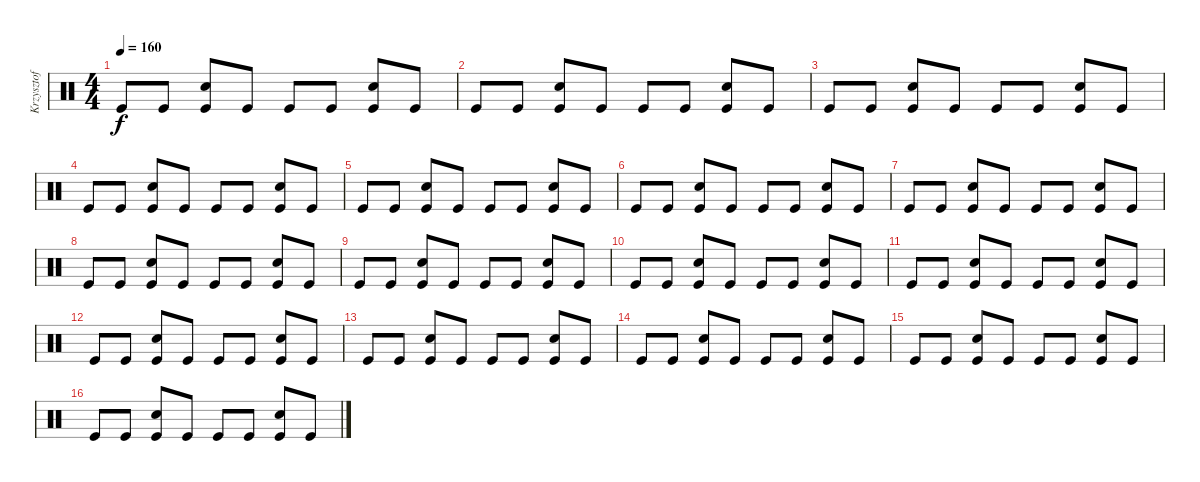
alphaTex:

\track ("Krzysztof Grela" "Krzysztof ") {instrument percussion}
\staff {score}
\articulation defaults
\ts (4 4)
\tempo 160
\clef neutral
\ks c "Kick (hit)".8{dy f} "Kick (hit)".8
("Snare (hit) 2" "Kick (hit)").8 "Kick (hit)".8 "Kick (hit)".8 "Kick (hit)".8 ("Snare (hit) 2" "Kick (hit)").8 "Kick (hit)".8 |
"Kick (hit)".8 "Kick (hit)".8 ("Snare (hit) 2" "Kick (hit)").8 "Kick (hit)".8 "Kick (hit)".8 "Kick (hit)".8 ("Snare (hit) 2" "Kick (hit)").8 "Kick (hit)".8 |
"Kick (hit)".8 "Kick (hit)".8 ("Snare (hit) 2" "Kick (hit)").8 "Kick (hit)".8 "Kick (hit)".8 "Kick (hit)".8 ("Snare (hit) 2" "Kick (hit)").8 "Kick (hit)".8 |
"Kick (hit)".8 "Kick (hit)".8 ("Snare (hit) 2" "Kick (hit)").8 "Kick (hit)".8 "Kick (hit)".8 "Kick (hit)".8 ("Snare (hit) 2" "Kick (hit)").8 "Kick (hit)".8 |
"Kick (hit)".8 "Kick (hit)".8 ("Snare (hit) 2" "Kick (hit)").8 "Kick (hit)".8 "Kick (hit)".8 "Kick (hit)".8 ("Snare (hit) 2" "Kick (hit)").8 "Kick (hit)".8 |
"Kick (hit)".8 "Kick (hit)".8 ("Snare (hit) 2" "Kick (hit)").8 "Kick (hit)".8 "Kick (hit)".8 "Kick (hit)".8 ("Snare (hit) 2" "Kick (hit)").8 "Kick (hit)".8 |
"Kick (hit)".8 "Kick (hit)".8 ("Snare (hit) 2" "Kick (hit)").8 "Kick (hit)".8 "Kick (hit)".8 "Kick (hit)".8 ("Snare (hit) 2" "Kick (hit)").8 "Kick (hit)".8 |
"Kick (hit)".8 "Kick (hit)".8 ("Snare (hit) 2" "Kick (hit)").8 "Kick (hit)".8 "Kick (hit)".8 "Kick (hit)".8 ("Snare (hit) 2" "Kick (hit)").8 "Kick (hit)".8 |
"Kick (hit)".8 "Kick (hit)".8 ("Snare (hit) 2" "Kick (hit)").8 "Kick (hit)".8 "Kick (hit)".8 "Kick (hit)".8 ("Snare (hit) 2" "Kick (hit)").8 "Kick (hit)".8 |
"Kick (hit)".8 "Kick (hit)".8 ("Snare (hit) 2" "Kick (hit)").8 "Kick (hit)".8 "Kick (hit)".8 "Kick (hit)".8 ("Snare (hit) 2" "Kick (hit)").8 "Kick (hit)".8 |
"Kick (hit)".8 "Kick (hit)".8 ("Snare (hit) 2" "Kick (hit)").8 "Kick (hit)".8 "Kick (hit)".8 "Kick (hit)".8 ("Snare (hit) 2" "Kick (hit)").8 "Kick (hit)".8 |
"Kick (hit)".8 "Kick (hit)".8 ("Snare (hit) 2" "Kick (hit)").8 "Kick (hit)".8 "Kick (hit)".8 "Kick (hit)".8 ("Snare (hit) 2" "Kick (hit)").8 "Kick (hit)".8 |
"Kick (hit)".8 "Kick (hit)".8 ("Snare (hit) 2" "Kick (hit)").8 "Kick (hit)".8 "Kick (hit)".8 "Kick (hit)".8 ("Snare (hit) 2" "Kick (hit)").8 "Kick (hit)".8 |
"Kick (hit)".8 "Kick (hit)".8 ("Snare (hit) 2" "Kick (hit)").8 "Kick (hit)".8 "Kick (hit)".8 "Kick (hit)".8 ("Snare (hit) 2" "Kick (hit)").8 "Kick (hit)".8 |
"Kick (hit)".8 "Kick (hit)".8 ("Snare (hit) 2" "Kick (hit)").8 "Kick (hit)".8 "Kick (hit)".8 "Kick (hit)".8 ("Snare (hit) 2" "Kick (hit)").8 "Kick (hit)".8 |
"Kick (hit)".8 "Kick (hit)".8 ("Snare (hit) 2" "Kick (hit)").8 "Kick (hit)".8 "Kick (hit)".8 "Kick (hit)".8 ("Snare (hit) 2" "Kick (hit)").8 "Kick (hit)".8
